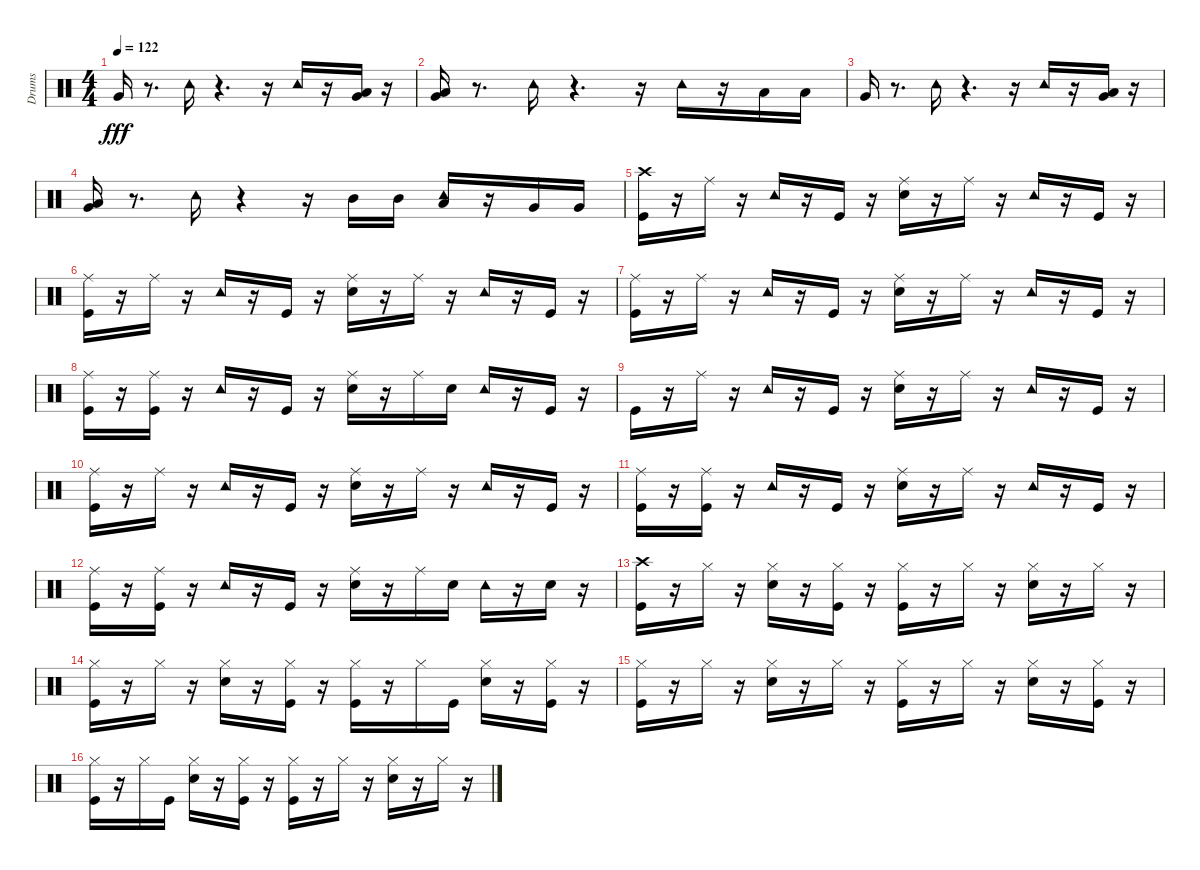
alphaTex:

\track ("Drums" "Drums") {instrument percussion}
\staff {score}
\articulation defaults
\ts (4 4)
\tempo 122
\clef neutral
\ks c "Very Low Tom (hit)".16{dy fff}
r.8{d} "Tambourine (hit)".16 r.4{d} r.16 "Tambourine (hit)".16 r.16 ("Very Low Tom (hit)" "Low Floor Tom (hit)").16 r.16 |
("Very Low Tom (hit)" "Low Floor Tom (hit)").16 r.8{d} "Tambourine (hit)".16 r.4{d} r.16 "Tambourine (hit)".16 r.16 "Low Tom (hit)".16 "Low Tom (hit)".16 |
"Very Low Tom (hit)".16 r.8{d} "Tambourine (hit)".16 r.4{d} r.16 "Tambourine (hit)".16 r.16 ("Very Low Tom (hit)" "Low Floor Tom (hit)").16 r.16 |
("Very Low Tom (hit)" "Low Floor Tom (hit)").16 r.8{d} "Tambourine (hit)".16 r.4 r.16 "Mid Tom (hit)".16 "Mid Tom (hit)".16 ("Low Tom (hit)" "Tambourine (hit)").16 r.16 "Very Low Tom (hit)".16 "Very Low Tom (hit)".16 |
("Crash high (hit)" "Kick (hit)").16 r.16 "Ride (middle)".16 r.16 "Tambourine (hit)".16 r.16 "Kick (hit)".16 r.16 ("Snare (hit) 2" "Ride (middle)").16 r.16 "Ride (middle)".16 r.16 "Tambourine (hit)".16 r.16 "Kick (hit)".16 r.16 |
("Ride (middle)" "Kick (hit)").16 r.16 "Ride (middle)".16 r.16 "Tambourine (hit)".16 r.16 "Kick (hit)".16 r.16 ("Ride (middle)" "Snare (hit) 2").16 r.16 "Ride (middle)".16 r.16 "Tambourine (hit)".16 r.16 "Kick (hit)".16 r.16 |
("Ride (middle)" "Kick (hit)").16 r.16 "Ride (middle)".16 r.16 "Tambourine (hit)".16 r.16 "Kick (hit)".16 r.16 ("Ride (middle)" "Snare (hit) 2").16 r.16 "Ride (middle)".16 r.16 "Tambourine (hit)".16 r.16 "Kick (hit)".16 r.16 |
("Kick (hit)" "Ride (middle)").16 r.16 ("Kick (hit)" "Ride (middle)").16 r.16 "Tambourine (hit)".16 r.16 "Kick (hit)".16 r.16 ("Snare (hit) 2" "Ride (middle)").16 r.16 "Ride (middle)".16 "Snare (hit) 2".16 "Tambourine (hit)".16 r.16 "Kick (hit)".16 r.16 |
"Kick (hit)".16 r.16 "Ride (middle)".16 r.16 "Tambourine (hit)".16 r.16 "Kick (hit)".16 r.16 ("Ride (middle)" "Snare (hit) 2").16 r.16 "Ride (middle)".16 r.16 "Tambourine (hit)".16 r.16 "Kick (hit)".16 r.16 |
("Kick (hit)" "Ride (middle)").16 r.16 "Ride (middle)".16 r.16 "Tambourine (hit)".16 r.16 "Kick (hit)".16 r.16 ("Snare (hit) 2" "Ride (middle)").16 r.16 "Ride (middle)".16 r.16 "Tambourine (hit)".16 r.16 "Kick (hit)".16 r.16 |
("Ride (middle)" "Kick (hit)").16 r.16 ("Ride (middle)" "Kick (hit)").16 r.16 "Tambourine (hit)".16 r.16 "Kick (hit)".16 r.16 ("Ride (middle)" "Snare (hit) 2").16 r.16 "Ride (middle)".16 r.16 "Tambourine (hit)".16 r.16 "Kick (hit)".16 r.16 |
("Kick (hit)" "Ride (middle)").16 r.16 ("Kick (hit)" "Ride (middle)").16 r.16 "Tambourine (hit)".16 r.16 "Kick (hit)".16 r.16 ("Snare (hit) 2" "Ride (middle)").16 r.16 "Ride (middle)".16 "Snare (hit) 2".16 "Tambourine (hit)".16 r.16 "Snare (hit) 2".16 r.16 |
("Crash high (hit)" "Kick (hit)").16 r.16 "Hi-Hat (closed)".16 r.16 ("Snare (hit) 2" "Hi-Hat (closed)").16 r.16 ("Kick (hit)" "Hi-Hat (closed)").16 r.16 ("Kick (hit)" "Hi-Hat (closed)").16 r.16 "Hi-Hat (closed)".16 r.16 ("Snare (hit) 2" "Hi-Hat (closed)").16 r.16 "Hi-Hat (closed)".16 r.16 |
("Hi-Hat (closed)" "Kick (hit)").16 r.16 "Hi-Hat (closed)".16 r.16 ("Hi-Hat (closed)" "Snare (hit) 2").16 r.16 ("Hi-Hat (closed)" "Kick (hit)").16 r.16 ("Hi-Hat (closed)" "Kick (hit)").16 r.16 "Hi-Hat (closed)".16 "Kick (hit)".16 ("Hi-Hat (closed)" "Snare (hit) 2").16 r.16 ("Hi-Hat (closed)" "Kick (hit)").16 r.16 |
("Kick (hit)" "Hi-Hat (closed)").16 r.16 "Hi-Hat (closed)".16 r.16 ("Snare (hit) 2" "Hi-Hat (closed)").16 r.16 "Hi-Hat (closed)".16 r.16 ("Kick (hit)" "Hi-Hat (closed)").16 r.16 "Hi-Hat (closed)".16 r.16 ("Snare (hit) 2" "Hi-Hat (closed)").16 r.16 ("Kick (hit)" "Hi-Hat (closed)").16 r.16 |
("Hi-Hat (closed)" "Kick (hit)").16 r.16 "Hi-Hat (closed)".16 "Kick (hit)".16 ("Hi-Hat (closed)" "Snare (hit) 2").16 r.16 ("Hi-Hat (closed)" "Kick (hit)").16 r.16 ("Hi-Hat (closed)" "Kick (hit)").16 r.16 "Hi-Hat (closed)".16 r.16 ("Hi-Hat (closed)" "Snare (hit) 2").16 r.16 "Hi-Hat (closed)".16 r.16
